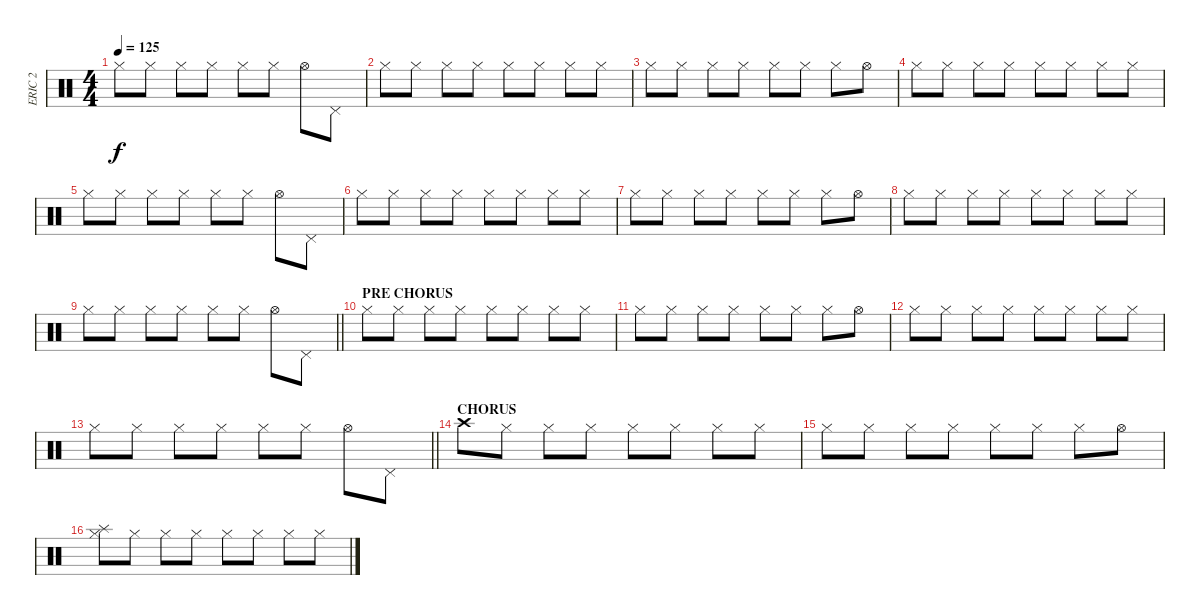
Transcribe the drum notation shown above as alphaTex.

\track ("ERIC 2" "ERIC 2") {instrument percussion}
\staff {score}
\articulation defaults
\ts (4 4)
\tempo 125
\clef neutral
\ks c "Hi-Hat (closed)".8{dy f} "Hi-Hat (closed)".8 "Hi-Hat (closed)".8 "Hi-Hat (closed)".8 "Hi-Hat (closed)".8 "Hi-Hat (closed)".8 "Hi-Hat (open)".8 "Pedal Hi-Hat (hit)".8
|
"Hi-Hat (closed)".8 "Hi-Hat (closed)".8 "Hi-Hat (closed)".8 "Hi-Hat (closed)".8 "Hi-Hat (closed)".8 "Hi-Hat (closed)".8 "Hi-Hat (closed)".8 "Hi-Hat (closed)".8 |
"Hi-Hat (closed)".8 "Hi-Hat (closed)".8 "Hi-Hat (closed)".8 "Hi-Hat (closed)".8 "Hi-Hat (closed)".8 "Hi-Hat (closed)".8 "Hi-Hat (closed)".8 "Hi-Hat (open)".8 |
"Hi-Hat (closed)".8 "Hi-Hat (closed)".8 "Hi-Hat (closed)".8 "Hi-Hat (closed)".8 "Hi-Hat (closed)".8 "Hi-Hat (closed)".8 "Hi-Hat (closed)".8 "Hi-Hat (closed)".8 |
"Hi-Hat (closed)".8 "Hi-Hat (closed)".8 "Hi-Hat (closed)".8 "Hi-Hat (closed)".8 "Hi-Hat (closed)".8 "Hi-Hat (closed)".8 "Hi-Hat (open)".8 "Pedal Hi-Hat (hit)".8 |
"Hi-Hat (closed)".8 "Hi-Hat (closed)".8 "Hi-Hat (closed)".8 "Hi-Hat (closed)".8 "Hi-Hat (closed)".8 "Hi-Hat (closed)".8 "Hi-Hat (closed)".8 "Hi-Hat (closed)".8 |
"Hi-Hat (closed)".8 "Hi-Hat (closed)".8 "Hi-Hat (closed)".8 "Hi-Hat (closed)".8 "Hi-Hat (closed)".8 "Hi-Hat (closed)".8 "Hi-Hat (closed)".8 "Hi-Hat (open)".8 |
"Hi-Hat (closed)".8 "Hi-Hat (closed)".8 "Hi-Hat (closed)".8 "Hi-Hat (closed)".8 "Hi-Hat (closed)".8 "Hi-Hat (closed)".8 "Hi-Hat (closed)".8 "Hi-Hat (closed)".8 |
\barLineRight lightlight "Hi-Hat (closed)".8 "Hi-Hat (closed)".8 "Hi-Hat (closed)".8 "Hi-Hat (closed)".8 "Hi-Hat (closed)".8 "Hi-Hat (closed)".8 "Hi-Hat (open)".8 "Pedal Hi-Hat (hit)".8
|
\section ("" "PRE CHORUS")
"Hi-Hat (closed)".8 "Hi-Hat (closed)".8 "Hi-Hat (closed)".8 "Hi-Hat (closed)".8 "Hi-Hat (closed)".8 "Hi-Hat (closed)".8 "Hi-Hat (closed)".8 "Hi-Hat (closed)".8 |
"Hi-Hat (closed)".8 "Hi-Hat (closed)".8 "Hi-Hat (closed)".8 "Hi-Hat (closed)".8 "Hi-Hat (closed)".8 "Hi-Hat (closed)".8 "Hi-Hat (closed)".8 "Hi-Hat (open)".8 |
"Hi-Hat (closed)".8 "Hi-Hat (closed)".8 "Hi-Hat (closed)".8 "Hi-Hat (closed)".8 "Hi-Hat (closed)".8 "Hi-Hat (closed)".8 "Hi-Hat (closed)".8 "Hi-Hat (closed)".8 |
\barLineRight lightlight "Hi-Hat (closed)".8 "Hi-Hat (closed)".8 "Hi-Hat (closed)".8 "Hi-Hat (closed)".8 "Hi-Hat (closed)".8 "Hi-Hat (closed)".8 "Hi-Hat (open)".8 "Pedal Hi-Hat (hit)".8
|
\section ("" "CHORUS")
"Crash high (hit)".8 "Hi-Hat (closed)".8 "Hi-Hat (closed)".8 "Hi-Hat (closed)".8 "Hi-Hat (closed)".8 "Hi-Hat (closed)".8 "Hi-Hat (closed)".8 "Hi-Hat (closed)".8 |
"Hi-Hat (closed)".8 "Hi-Hat (closed)".8 "Hi-Hat (closed)".8 "Hi-Hat (closed)".8 "Hi-Hat (closed)".8 "Hi-Hat (closed)".8 "Hi-Hat (closed)".8 "Hi-Hat (open)".8 |
("Splash (hit)" "Hi-Hat (closed)").8 "Hi-Hat (closed)".8 "Hi-Hat (closed)".8 "Hi-Hat (closed)".8 "Hi-Hat (closed)".8 "Hi-Hat (closed)".8 "Hi-Hat (closed)".8 "Hi-Hat (closed)".8
